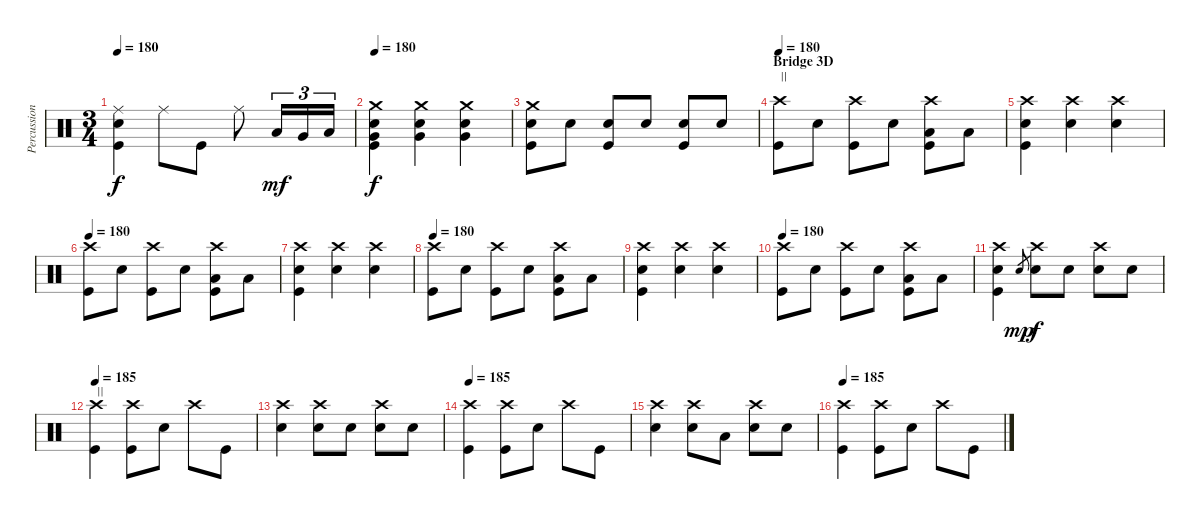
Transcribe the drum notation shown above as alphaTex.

\track ("Percussion" "Percussion") {instrument percussion}
\staff {score}
\articulation defaults
\ts (3 4)
\tempo 180
\clef neutral
\ks c
("Ride (middle)" "Electric Snare (hit)" "Kick (hit)").4{dy f} "Ride (middle)".8 "Kick (hit)".8 "Ride (middle)".8 "Low Tom (hit)".16{tu (3 2) dy mf} "Very Low Tom (hit)".16{tu (3 2)} "Low Floor Tom (hit)".16{tu (3 2)} |
\tempo 180
("Crash medium (hit)" "Electric Snare (hit)" "Very Low Tom (hit)" "Kick (hit)").4{dy f} ("Crash medium (hit)" "Electric Snare (hit)" "Very Low Tom (hit)").4 ("Crash medium (hit)" "Electric Snare (hit)" "Very Low Tom (hit)").4 |
("Crash medium (hit)" "Electric Snare (hit)" "Kick (hit)").8 "Electric Snare (hit)".8 ("Electric Snare (hit)" "Kick (hit)").8 "Electric Snare (hit)".8 ("Electric Snare (hit)" "Kick (hit)").8 "Electric Snare (hit)".8 |
\section ("" "Bridge 3D")
\tempo 180
("Crash high (hit)" "Kick (hit)").8{txt "||"} "Electric Snare (hit)".8 ("Crash high (hit)" "Kick (hit)").8 "Electric Snare (hit)".8 ("Crash high (hit)" "Low Floor Tom (hit)" "Kick (hit)").8 "Low Floor Tom (hit)".8 |
("Crash high (hit)" "Electric Snare (hit)" "Kick (hit)").4 ("Crash high (hit)" "Electric Snare (hit)").4 ("Crash high (hit)" "Electric Snare (hit)").4 |
\tempo 180
("Crash high (hit)" "Kick (hit)").8 "Electric Snare (hit)".8 ("Crash high (hit)" "Kick (hit)").8 "Electric Snare (hit)".8 ("Crash high (hit)" "Low Floor Tom (hit)" "Kick (hit)").8 "Low Floor Tom (hit)".8 |
("Crash high (hit)" "Electric Snare (hit)" "Kick (hit)").4 ("Crash high (hit)" "Electric Snare (hit)").4 ("Crash high (hit)" "Electric Snare (hit)").4 |
\tempo 180
("Crash high (hit)" "Kick (hit)").8 "Electric Snare (hit)".8 ("Crash high (hit)" "Kick (hit)").8 "Electric Snare (hit)".8 ("Crash high (hit)" "Low Floor Tom (hit)" "Kick (hit)").8 "Low Floor Tom (hit)".8 |
("Crash high (hit)" "Electric Snare (hit)" "Kick (hit)").4 ("Crash high (hit)" "Electric Snare (hit)").4 ("Crash high (hit)" "Electric Snare (hit)").4 |
\tempo 180
("Crash high (hit)" "Kick (hit)").8 "Electric Snare (hit)".8 ("Crash high (hit)" "Kick (hit)").8 "Electric Snare (hit)".8 ("Crash high (hit)" "Low Floor Tom (hit)" "Kick (hit)").8 "Low Floor Tom (hit)".8 |
("Crash high (hit)" "Electric Snare (hit)" "Kick (hit)").4 "Electric Snare (hit)".8{gr dy mp} ("Crash high (hit)" "Electric Snare (hit)").8{dy f} "Electric Snare (hit)".8 ("Crash high (hit)" "Electric Snare (hit)").8 "Electric Snare (hit)".8 |
\tempo 185
("Crash high (hit)" "Kick (hit)").4{txt "||"} ("Crash high (hit)" "Kick (hit)").8 "Electric Snare (hit)".8 "Crash high (hit)".8 "Kick (hit)".8 |
("Crash high (hit)" "Electric Snare (hit)").4 ("Crash high (hit)" "Electric Snare (hit)").8 "Electric Snare (hit)".8 ("Crash high (hit)" "Electric Snare (hit)").8 "Electric Snare (hit)".8 |
\tempo 185
("Crash high (hit)" "Kick (hit)").4 ("Crash high (hit)" "Kick (hit)").8 "Electric Snare (hit)".8 "Crash high (hit)".8 "Kick (hit)".8 |
("Crash high (hit)" "Electric Snare (hit)").4 ("Crash high (hit)" "Electric Snare (hit)").8 "Low Tom (hit)".8 ("Crash high (hit)" "Electric Snare (hit)").8 "Electric Snare (hit)".8 |
\tempo 185
("Crash high (hit)" "Kick (hit)").4 ("Crash high (hit)" "Kick (hit)").8 "Electric Snare (hit)".8 "Crash high (hit)".8 "Kick (hit)".8
